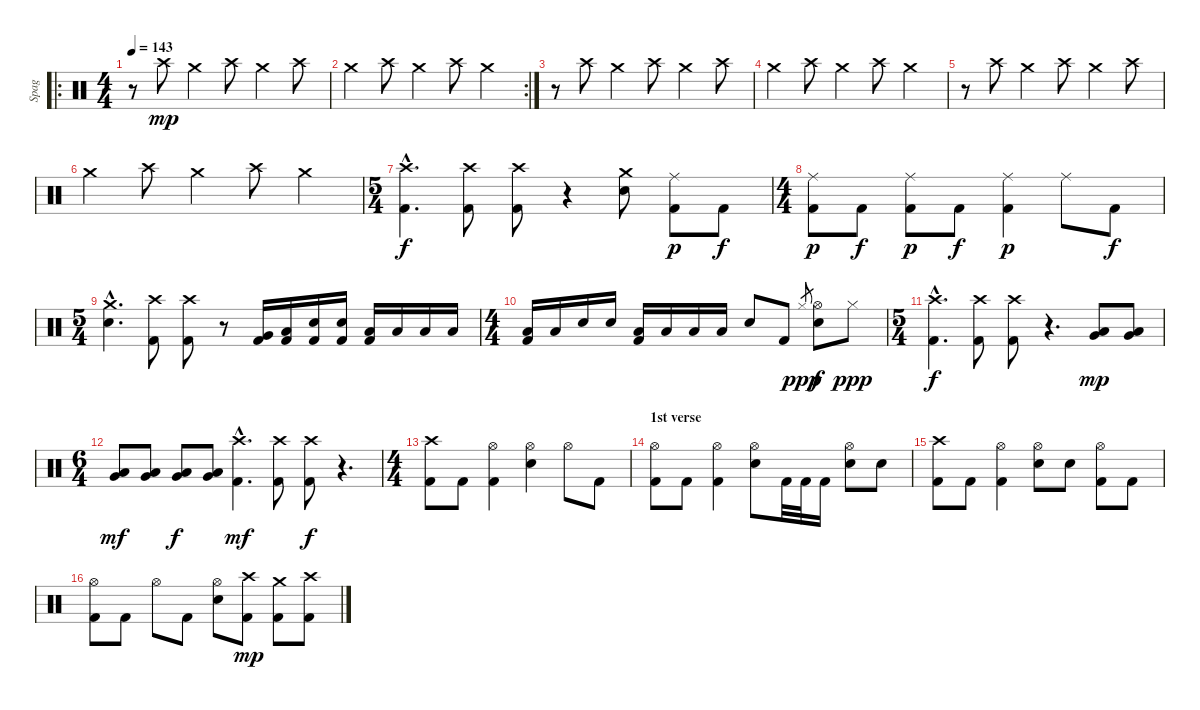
\track ("Spag" "Spag") {instrument percussion}
\staff {score}
\articulation defaults
\ro
\ts (4 4)
\tempo 143
\clef neutral
\ks c
r.8{dy mp balance 0} "Crash high (hit)".8 "Crash medium (hit)".4 "Crash high (hit)".8 "Crash medium (hit)".4 "Crash high (hit)".8 |
\rc 2 "Crash medium (hit)".4 "Crash high (hit)".8 "Crash medium (hit)".4 "Crash high (hit)".8 "Crash medium (hit)".4
|
r.8 "Crash high (hit)".8 "Crash medium (hit)".4 "Crash high (hit)".8 "Crash medium (hit)".4 "Crash high (hit)".8 |
"Crash medium (hit)".4 "Crash high (hit)".8 "Crash medium (hit)".4 "Crash high (hit)".8 "Crash medium (hit)".4 |
r.8 "Crash high (hit)".8 "Crash medium (hit)".4 "Crash high (hit)".8 "Crash medium (hit)".4 "Crash high (hit)".8 |
"Crash medium (hit)".4 "Crash high (hit)".8 "Crash medium (hit)".4 "Crash high (hit)".8 "Crash medium (hit)".4 |
\ts (5 4)
("Crash high (hit)"{hac} "Kick (hit) 2"{hac}).4{d dy f balance 8} ("Crash high (hit)" "Kick (hit) 2").8 ("Crash high (hit)" "Kick (hit) 2").8 r.4 ("Crash medium (hit)" "Electric Snare (hit)").8 ("Ride (middle)" "Kick (hit) 2").8{dy p} "Kick (hit) 2".8{dy f} |
\ts (4 4)
("Ride (middle)" "Kick (hit) 2").8{dy p} "Kick (hit) 2".8{dy f} ("Ride (middle)" "Kick (hit) 2").8{dy p} "Kick (hit) 2".8{dy f} ("Ride (middle)" "Kick (hit) 2").4{dy p} "Ride (middle)".8 "Kick (hit) 2".8{dy f} |
\ts (5 4)
("Crash medium (hit)"{hac} "Electric Snare (hit)"{hac}).4{d} ("Crash high (hit)" "Kick (hit) 2").8 ("Crash high (hit)" "Kick (hit) 2").8 r.8 ("Very Low Tom (hit)" "Kick (hit) 2").16 ("Low Tom (hit)" "Kick (hit) 2").16 ("Electric Snare (hit)" "Kick (hit) 2").16 ("Electric Snare (hit)" "Kick (hit) 2").16 ("Low Tom (hit)" "Kick (hit) 2").16 "Low Tom (hit)".16 "Low Tom (hit)".16 "Low Tom (hit)".16 |
\ts (4 4)
("Low Tom (hit)" "Kick (hit) 2").16 "Low Tom (hit)".16 "Electric Snare (hit)".16 "Electric Snare (hit)".16 ("Low Tom (hit)" "Kick (hit) 2").16 "Low Tom (hit)".16 "Low Tom (hit)".16 "Low Tom (hit)".16 "Electric Snare (hit)".8 "Kick (hit) 2".8 "Hi-Hat (closed)".8{gr dy ppp} ("Hi-Hat (open)" "Electric Snare (hit)").8{dy f} "Hi-Hat (closed)".8{dy ppp} |
\ts (5 4)
("Crash high (hit)"{hac} "Kick (hit) 2"{hac}).4{d dy f} ("Crash high (hit)" "Kick (hit) 2").8 ("Crash high (hit)" "Kick (hit) 2").8 r.4{d} ("Very Low Tom (hit)" "Low Floor Tom (hit)").8{dy mp} ("Very Low Tom (hit)" "Low Floor Tom (hit)").8 |
\ts (6 4)
("Very Low Tom (hit)" "Low Floor Tom (hit)").8{dy mf} ("Very Low Tom (hit)" "Low Floor Tom (hit)").8 ("Very Low Tom (hit)" "Low Floor Tom (hit)").8{dy f} ("Very Low Tom (hit)" "Low Floor Tom (hit)").8 ("Crash high (hit)"{hac} "Kick (hit) 2"{hac}).4{d dy mf} ("Crash high (hit)" "Kick (hit) 2").8 ("Crash high (hit)" "Kick (hit) 2").8{dy f} r.4{d} |
\ts (4 4)
("Crash high (hit)" "Kick (hit) 2").8 "Kick (hit) 2".8 ("Hi-Hat (open)" "Kick (hit) 2").4 ("Hi-Hat (open)" "Electric Snare (hit)").4 "Hi-Hat (open)".8 "Kick (hit) 2".8 |
\section ("" "1st verse")
("Hi-Hat (open)" "Kick (hit) 2").8 "Kick (hit) 2".8 ("Hi-Hat (open)" "Kick (hit) 2").4 ("Hi-Hat (open)" "Electric Snare (hit)").8 "Kick (hit) 2".32 "Kick (hit) 2".32 "Kick (hit) 2".16 ("Hi-Hat (open)" "Electric Snare (hit)").8 "Electric Snare (hit)".8 |
("Crash high (hit)" "Kick (hit) 2").8 "Kick (hit) 2".8 ("Hi-Hat (open)" "Kick (hit) 2").4 ("Hi-Hat (open)" "Electric Snare (hit)").8 "Electric Snare (hit)".8 ("Hi-Hat (open)" "Kick (hit) 2").8 "Kick (hit) 2".8 |
("Hi-Hat (open)" "Kick (hit) 2").8 "Kick (hit) 2".8 "Hi-Hat (open)".8 "Kick (hit) 2".8 ("Hi-Hat (open)" "Electric Snare (hit)").8 ("Crash high (hit)" "Kick (hit) 2").8{dy mp} ("Crash medium (hit)" "Kick (hit) 2").8 ("Crash high (hit)" "Kick (hit) 2").8
